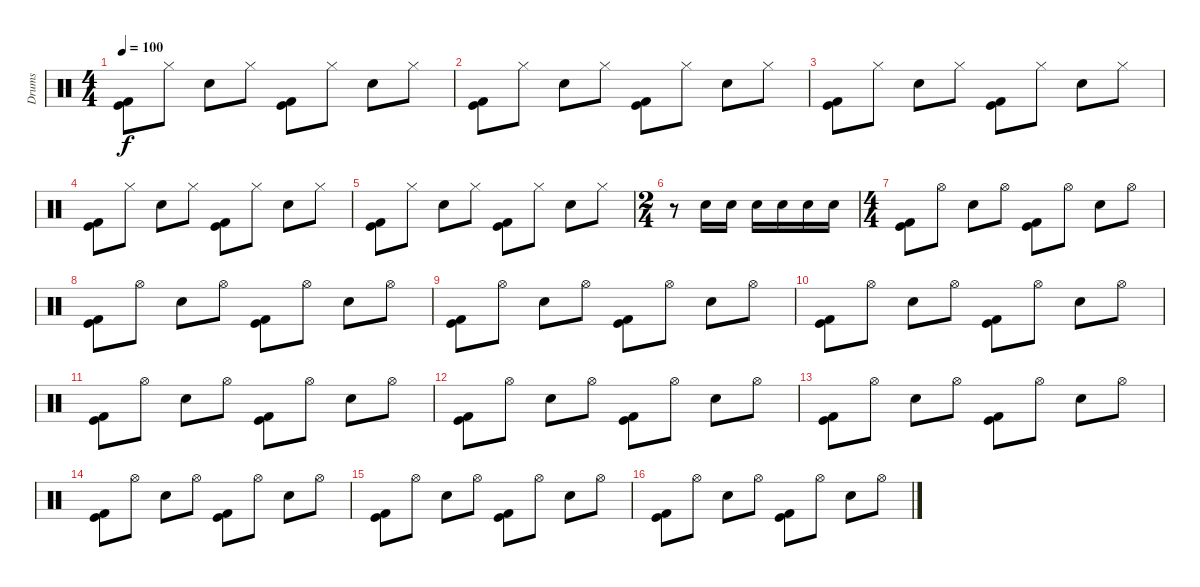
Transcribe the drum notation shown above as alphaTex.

\track ("Drums" "Drums") {instrument percussion}
\staff {score}
\articulation defaults
\ts (4 4)
\tempo 100
\clef neutral
\ks c
("Kick (hit)" "Kick (hit) 2").8{dy f} "Hi-Hat (closed)".8 "Snare (hit) 2".8 "Hi-Hat (closed)".8 ("Kick (hit)" "Kick (hit) 2").8 "Hi-Hat (closed)".8 "Snare (hit) 2".8 "Hi-Hat (closed)".8 |
("Kick (hit)" "Kick (hit) 2").8 "Hi-Hat (closed)".8 "Snare (hit) 2".8 "Hi-Hat (closed)".8 ("Kick (hit)" "Kick (hit) 2").8 "Hi-Hat (closed)".8 "Snare (hit) 2".8 "Hi-Hat (closed)".8 |
("Kick (hit)" "Kick (hit) 2").8 "Hi-Hat (closed)".8 "Snare (hit) 2".8 "Hi-Hat (closed)".8 ("Kick (hit)" "Kick (hit) 2").8 "Hi-Hat (closed)".8 "Snare (hit) 2".8 "Hi-Hat (closed)".8 |
("Kick (hit)" "Kick (hit) 2").8 "Hi-Hat (closed)".8 "Snare (hit) 2".8 "Hi-Hat (closed)".8 ("Kick (hit)" "Kick (hit) 2").8 "Hi-Hat (closed)".8 "Snare (hit) 2".8 "Hi-Hat (closed)".8 |
("Kick (hit)" "Kick (hit) 2").8 "Hi-Hat (closed)".8 "Snare (hit) 2".8 "Hi-Hat (closed)".8 ("Kick (hit)" "Kick (hit) 2").8 "Hi-Hat (closed)".8 "Snare (hit) 2".8 "Hi-Hat (closed)".8 |
\ts (2 4)
r.8 "Snare (hit) 2".16 "Snare (hit) 2".16 "Snare (hit) 2".16 "Snare (hit) 2".16 "Snare (hit) 2".16 "Snare (hit) 2".16 |
\ts (4 4)
("Kick (hit) 2" "Kick (hit)").8 "Hi-Hat (open)".8 "Snare (hit) 2".8 "Hi-Hat (open)".8 ("Kick (hit) 2" "Kick (hit)").8 "Hi-Hat (open)".8 "Snare (hit) 2".8 "Hi-Hat (open)".8 |
("Kick (hit) 2" "Kick (hit)").8 "Hi-Hat (open)".8 "Snare (hit) 2".8 "Hi-Hat (open)".8 ("Kick (hit) 2" "Kick (hit)").8 "Hi-Hat (open)".8 "Snare (hit) 2".8 "Hi-Hat (open)".8 |
("Kick (hit) 2" "Kick (hit)").8 "Hi-Hat (open)".8 "Snare (hit) 2".8 "Hi-Hat (open)".8 ("Kick (hit) 2" "Kick (hit)").8 "Hi-Hat (open)".8 "Snare (hit) 2".8 "Hi-Hat (open)".8 |
("Kick (hit) 2" "Kick (hit)").8 "Hi-Hat (open)".8 "Snare (hit) 2".8 "Hi-Hat (open)".8 ("Kick (hit) 2" "Kick (hit)").8 "Hi-Hat (open)".8 "Snare (hit) 2".8 "Hi-Hat (open)".8 |
("Kick (hit) 2" "Kick (hit)").8 "Hi-Hat (open)".8 "Snare (hit) 2".8 "Hi-Hat (open)".8 ("Kick (hit) 2" "Kick (hit)").8 "Hi-Hat (open)".8 "Snare (hit) 2".8 "Hi-Hat (open)".8 |
("Kick (hit) 2" "Kick (hit)").8 "Hi-Hat (open)".8 "Snare (hit) 2".8 "Hi-Hat (open)".8 ("Kick (hit) 2" "Kick (hit)").8 "Hi-Hat (open)".8 "Snare (hit) 2".8 "Hi-Hat (open)".8 |
("Kick (hit) 2" "Kick (hit)").8 "Hi-Hat (open)".8 "Snare (hit) 2".8 "Hi-Hat (open)".8 ("Kick (hit) 2" "Kick (hit)").8 "Hi-Hat (open)".8 "Snare (hit) 2".8 "Hi-Hat (open)".8 |
("Kick (hit) 2" "Kick (hit)").8 "Hi-Hat (open)".8 "Snare (hit) 2".8 "Hi-Hat (open)".8 ("Kick (hit) 2" "Kick (hit)").8 "Hi-Hat (open)".8 "Snare (hit) 2".8 "Hi-Hat (open)".8 |
("Kick (hit) 2" "Kick (hit)").8 "Hi-Hat (open)".8 "Snare (hit) 2".8 "Hi-Hat (open)".8 ("Kick (hit) 2" "Kick (hit)").8 "Hi-Hat (open)".8 "Snare (hit) 2".8 "Hi-Hat (open)".8 |
("Kick (hit) 2" "Kick (hit)").8 "Hi-Hat (open)".8 "Snare (hit) 2".8 "Hi-Hat (open)".8 ("Kick (hit) 2" "Kick (hit)").8 "Hi-Hat (open)".8 "Snare (hit) 2".8 "Hi-Hat (open)".8
